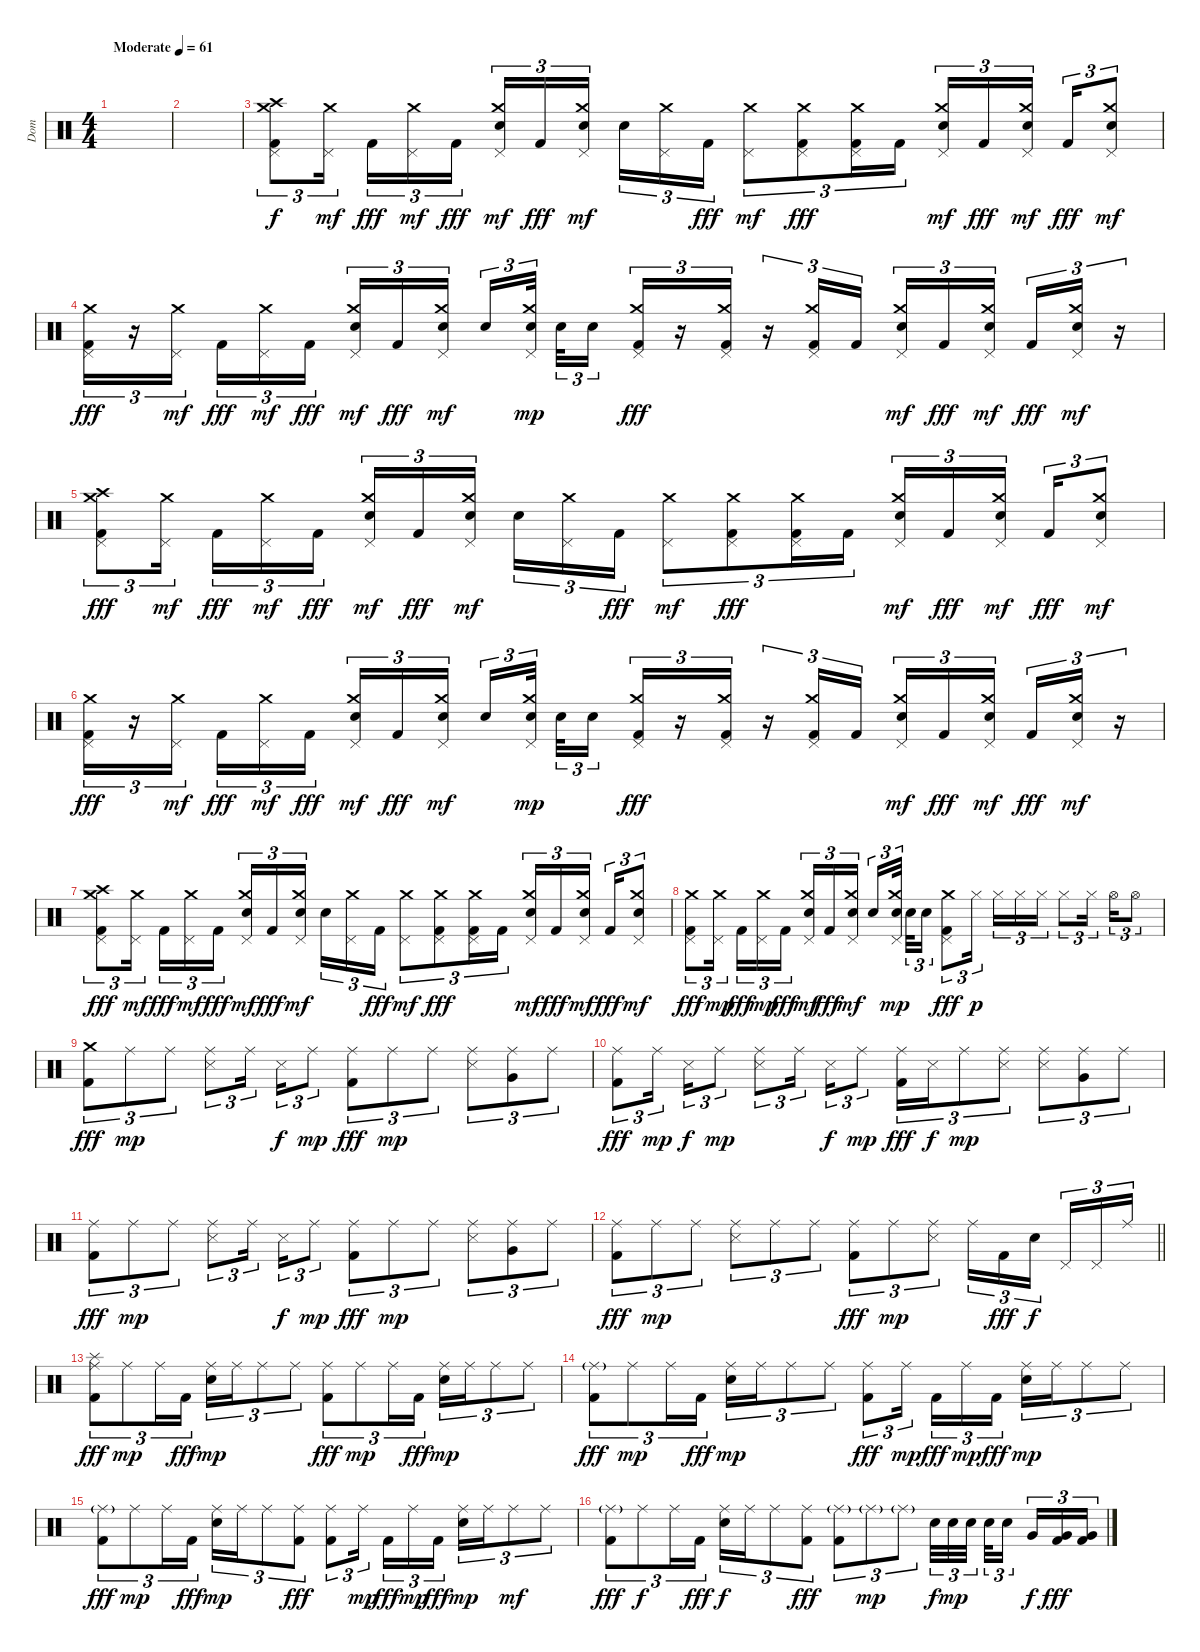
\track ("Dom" "Dom") {instrument percussion}
\staff {score}
\articulation defaults
\ts (4 4)
\tempo (61 "Moderate")
\clef neutral
\ks c
|
|
("Crash high (hit)" "Pedal Hi-Hat (hit)" "Crash medium (hit)" "Kick (hit) 2").8{tu (3 2)} ("Pedal Hi-Hat (hit)" "Crash medium (hit)").16{tu (3 2) dy mf beam splitsecondary} "Kick (hit) 2".16{tu (3 2) dy fff} ("Pedal Hi-Hat (hit)" "Crash medium (hit)").16{tu (3 2) dy mf} "Kick (hit) 2".16{tu (3 2) dy fff} ("Pedal Hi-Hat (hit)" "Crash medium (hit)" "Electric Snare (hit)").16{tu (3 2) dy mf} "Kick (hit) 2".16{tu (3 2) dy fff} ("Pedal Hi-Hat (hit)" "Crash medium (hit)" "Electric Snare (hit)").16{tu (3 2) dy mf beam splitsecondary} "Electric Snare (hit)".16{tu (3 2)} ("Pedal Hi-Hat (hit)" "Crash medium (hit)").16{tu (3 2)} "Kick (hit) 2".16{tu (3 2) dy fff} ("Pedal Hi-Hat (hit)" "Crash medium (hit)").8{tu (3 2) dy mf} ("Pedal Hi-Hat (hit)" "Crash medium (hit)" "Kick (hit) 2").8{tu (3 2) dy fff} ("Pedal Hi-Hat (hit)" "Crash medium (hit)" "Kick (hit) 2").16{tu (3 2)} "Kick (hit) 2".16{tu (3 2)} ("Pedal Hi-Hat (hit)" "Crash medium (hit)" "Electric Snare (hit)").16{tu (3 2) dy mf} "Kick (hit) 2".16{tu (3 2) dy fff} ("Pedal Hi-Hat (hit)" "Crash medium (hit)" "Electric Snare (hit)").16{tu (3 2) dy mf beam splitsecondary} "Kick (hit) 2".16{tu (3 2) dy fff} ("Pedal Hi-Hat (hit)" "Crash medium (hit)" "Electric Snare (hit)").8{tu (3 2) dy mf} |
("Pedal Hi-Hat (hit)" "Crash medium (hit)" "Kick (hit) 2").16{tu (3 2) dy fff} r.16{tu (3 2)} ("Pedal Hi-Hat (hit)" "Crash medium (hit)").16{tu (3 2) dy mf beam splitsecondary} "Kick (hit) 2".16{tu (3 2) dy fff} ("Pedal Hi-Hat (hit)" "Crash medium (hit)").16{tu (3 2) dy mf} "Kick (hit) 2".16{tu (3 2) dy fff} ("Pedal Hi-Hat (hit)" "Crash medium (hit)" "Electric Snare (hit)").16{tu (3 2) dy mf} "Kick (hit) 2".16{tu (3 2) dy fff} ("Pedal Hi-Hat (hit)" "Crash medium (hit)" "Electric Snare (hit)").16{tu (3 2) dy mf beam splitsecondary} "Electric Snare (hit)".16{tu (3 2)} ("Pedal Hi-Hat (hit)" "Crash medium (hit)" "Electric Snare (hit)").32{tu (3 2) dy mp beam splitsecondary} "Electric Snare (hit)".32{tu (3 2)} "Electric Snare (hit)".16{tu (3 2)} ("Pedal Hi-Hat (hit)" "Crash medium (hit)" "Kick (hit) 2").16{tu (3 2) dy fff} r.16{tu (3 2)} ("Pedal Hi-Hat (hit)" "Crash medium (hit)" "Kick (hit) 2").16{tu (3 2)} r.16{tu (3 2)} ("Pedal Hi-Hat (hit)" "Crash medium (hit)" "Kick (hit) 2").16{tu (3 2)} "Kick (hit) 2".16{tu (3 2)} ("Pedal Hi-Hat (hit)" "Crash medium (hit)" "Electric Snare (hit)").16{tu (3 2) dy mf} "Kick (hit) 2".16{tu (3 2) dy fff} ("Pedal Hi-Hat (hit)" "Crash medium (hit)" "Electric Snare (hit)").16{tu (3 2) dy mf beam splitsecondary} "Kick (hit) 2".16{tu (3 2) dy fff} ("Pedal Hi-Hat (hit)" "Crash medium (hit)" "Electric Snare (hit)").16{tu (3 2) dy mf} r.16{tu (3 2)} |
("Crash high (hit)" "Pedal Hi-Hat (hit)" "Crash medium (hit)" "Kick (hit) 2").8{tu (3 2) dy fff} ("Pedal Hi-Hat (hit)" "Crash medium (hit)").16{tu (3 2) dy mf beam splitsecondary} "Kick (hit) 2".16{tu (3 2) dy fff} ("Pedal Hi-Hat (hit)" "Crash medium (hit)").16{tu (3 2) dy mf} "Kick (hit) 2".16{tu (3 2) dy fff} ("Pedal Hi-Hat (hit)" "Crash medium (hit)" "Electric Snare (hit)").16{tu (3 2) dy mf} "Kick (hit) 2".16{tu (3 2) dy fff} ("Pedal Hi-Hat (hit)" "Crash medium (hit)" "Electric Snare (hit)").16{tu (3 2) dy mf beam splitsecondary} "Electric Snare (hit)".16{tu (3 2)} ("Pedal Hi-Hat (hit)" "Crash medium (hit)").16{tu (3 2)} "Kick (hit) 2".16{tu (3 2) dy fff} ("Pedal Hi-Hat (hit)" "Crash medium (hit)").8{tu (3 2) dy mf} ("Pedal Hi-Hat (hit)" "Crash medium (hit)" "Kick (hit) 2").8{tu (3 2) dy fff} ("Pedal Hi-Hat (hit)" "Crash medium (hit)" "Kick (hit) 2").16{tu (3 2)} "Kick (hit) 2".16{tu (3 2)} ("Pedal Hi-Hat (hit)" "Crash medium (hit)" "Electric Snare (hit)").16{tu (3 2) dy mf} "Kick (hit) 2".16{tu (3 2) dy fff} ("Pedal Hi-Hat (hit)" "Crash medium (hit)" "Electric Snare (hit)").16{tu (3 2) dy mf beam splitsecondary} "Kick (hit) 2".16{tu (3 2) dy fff} ("Pedal Hi-Hat (hit)" "Crash medium (hit)" "Electric Snare (hit)").8{tu (3 2) dy mf} |
("Pedal Hi-Hat (hit)" "Crash medium (hit)" "Kick (hit) 2").16{tu (3 2) dy fff} r.16{tu (3 2)} ("Pedal Hi-Hat (hit)" "Crash medium (hit)").16{tu (3 2) dy mf beam splitsecondary} "Kick (hit) 2".16{tu (3 2) dy fff} ("Pedal Hi-Hat (hit)" "Crash medium (hit)").16{tu (3 2) dy mf} "Kick (hit) 2".16{tu (3 2) dy fff} ("Pedal Hi-Hat (hit)" "Crash medium (hit)" "Electric Snare (hit)").16{tu (3 2) dy mf} "Kick (hit) 2".16{tu (3 2) dy fff} ("Pedal Hi-Hat (hit)" "Crash medium (hit)" "Electric Snare (hit)").16{tu (3 2) dy mf beam splitsecondary} "Electric Snare (hit)".16{tu (3 2)} ("Pedal Hi-Hat (hit)" "Crash medium (hit)" "Electric Snare (hit)").32{tu (3 2) dy mp beam splitsecondary} "Electric Snare (hit)".32{tu (3 2)} "Electric Snare (hit)".16{tu (3 2)} ("Pedal Hi-Hat (hit)" "Crash medium (hit)" "Kick (hit) 2").16{tu (3 2) dy fff} r.16{tu (3 2)} ("Pedal Hi-Hat (hit)" "Crash medium (hit)" "Kick (hit) 2").16{tu (3 2)} r.16{tu (3 2)} ("Pedal Hi-Hat (hit)" "Crash medium (hit)" "Kick (hit) 2").16{tu (3 2)} "Kick (hit) 2".16{tu (3 2)} ("Pedal Hi-Hat (hit)" "Crash medium (hit)" "Electric Snare (hit)").16{tu (3 2) dy mf} "Kick (hit) 2".16{tu (3 2) dy fff} ("Pedal Hi-Hat (hit)" "Crash medium (hit)" "Electric Snare (hit)").16{tu (3 2) dy mf beam splitsecondary} "Kick (hit) 2".16{tu (3 2) dy fff} ("Pedal Hi-Hat (hit)" "Crash medium (hit)" "Electric Snare (hit)").16{tu (3 2) dy mf} r.16{tu (3 2)} |
("Crash high (hit)" "Pedal Hi-Hat (hit)" "Crash medium (hit)" "Kick (hit) 2").8{tu (3 2) dy fff} ("Pedal Hi-Hat (hit)" "Crash medium (hit)").16{tu (3 2) dy mf beam splitsecondary} "Kick (hit) 2".16{tu (3 2) dy fff} ("Pedal Hi-Hat (hit)" "Crash medium (hit)").16{tu (3 2) dy mf} "Kick (hit) 2".16{tu (3 2) dy fff} ("Pedal Hi-Hat (hit)" "Crash medium (hit)" "Electric Snare (hit)").16{tu (3 2) dy mf} "Kick (hit) 2".16{tu (3 2) dy fff} ("Pedal Hi-Hat (hit)" "Crash medium (hit)" "Electric Snare (hit)").16{tu (3 2) dy mf beam splitsecondary} "Electric Snare (hit)".16{tu (3 2)} ("Pedal Hi-Hat (hit)" "Crash medium (hit)").16{tu (3 2)} "Kick (hit) 2".16{tu (3 2) dy fff} ("Pedal Hi-Hat (hit)" "Crash medium (hit)").8{tu (3 2) dy mf} ("Pedal Hi-Hat (hit)" "Crash medium (hit)" "Kick (hit) 2").8{tu (3 2) dy fff} ("Pedal Hi-Hat (hit)" "Crash medium (hit)" "Kick (hit) 2").16{tu (3 2)} "Kick (hit) 2".16{tu (3 2)} ("Pedal Hi-Hat (hit)" "Crash medium (hit)" "Electric Snare (hit)").16{tu (3 2) dy mf} "Kick (hit) 2".16{tu (3 2) dy fff} ("Pedal Hi-Hat (hit)" "Crash medium (hit)" "Electric Snare (hit)").16{tu (3 2) dy mf beam splitsecondary} "Kick (hit) 2".16{tu (3 2) dy fff} ("Pedal Hi-Hat (hit)" "Crash medium (hit)" "Electric Snare (hit)").8{tu (3 2) dy mf} |
("Pedal Hi-Hat (hit)" "Crash medium (hit)" "Kick (hit) 2").8{tu (3 2) dy fff} ("Pedal Hi-Hat (hit)" "Crash medium (hit)").16{tu (3 2) dy mp beam splitsecondary} "Kick (hit) 2".16{tu (3 2) dy fff} ("Pedal Hi-Hat (hit)" "Crash medium (hit)").16{tu (3 2) dy mp} "Kick (hit) 2".16{tu (3 2) dy fff} ("Pedal Hi-Hat (hit)" "Crash medium (hit)" "Electric Snare (hit)").16{tu (3 2) dy mf} "Kick (hit) 2".16{tu (3 2) dy fff} ("Pedal Hi-Hat (hit)" "Crash medium (hit)" "Electric Snare (hit)").16{tu (3 2) dy mf beam splitsecondary} "Electric Snare (hit)".16{tu (3 2)} ("Pedal Hi-Hat (hit)" "Crash medium (hit)" "Electric Snare (hit)").32{tu (3 2) dy mp beam splitsecondary} "Electric Snare (hit)".32{tu (3 2)} "Electric Snare (hit)".16{tu (3 2)} ("Pedal Hi-Hat (hit)" "Crash medium (hit)" "Kick (hit) 2").8{tu (3 2) dy fff} "Hi-Hat (closed)".16{tu (3 2) dy p beam splitsecondary} "Hi-Hat (closed)".16{tu (3 2)} "Hi-Hat (closed)".16{tu (3 2)} "Hi-Hat (closed)".16{tu (3 2)} "Hi-Hat (closed)".8{tu (3 2)} "Hi-Hat (closed)".16{tu (3 2) beam splitsecondary} "Hi-Hat (open)".16{tu (3 2)} "Hi-Hat (open)".8{tu (3 2)} |
("Crash medium (hit)" "Kick (hit) 2").8{tu (3 2) dy fff} "Ride (middle)".8{tu (3 2) dy mp} "Ride (middle)".8{tu (3 2)} ("Ride (middle)" "Snare (side stick) 3").8{tu (3 2)} "Ride (middle)".16{tu (3 2) beam splitsecondary} "Snare (side stick) 3".16{tu (3 2) dy f} "Ride (middle)".8{tu (3 2) dy mp} ("Ride (middle)" "Kick (hit) 2").8{tu (3 2) dy fff} "Ride (middle)".8{tu (3 2) dy mp} "Ride (middle)".8{tu (3 2)} ("Ride (middle)" "Snare (side stick) 3").8{tu (3 2)} ("Ride (middle)" "Very Low Tom (hit)").8{tu (3 2)} "Ride (middle)".8{tu (3 2)} |
("Ride (middle)" "Kick (hit) 2").8{tu (3 2) dy fff} "Ride (middle)".16{tu (3 2) dy mp beam splitsecondary} "Snare (side stick) 3".16{tu (3 2) dy f} "Ride (middle)".8{tu (3 2) dy mp} ("Ride (middle)" "Snare (side stick) 3").8{tu (3 2)} "Ride (middle)".16{tu (3 2) beam splitsecondary} "Snare (side stick) 3".16{tu (3 2) dy f} "Ride (middle)".8{tu (3 2) dy mp} ("Ride (middle)" "Kick (hit) 2").16{tu (3 2) dy fff} "Snare (side stick) 3".16{tu (3 2) dy f} "Ride (middle)".8{tu (3 2) dy mp} ("Ride (middle)" "Snare (side stick) 3").8{tu (3 2)} ("Ride (middle)" "Snare (side stick) 3").8{tu (3 2)} ("Ride (middle)" "Very Low Tom (hit)").8{tu (3 2)} "Ride (middle)".8{tu (3 2)} |
("Ride (middle)" "Kick (hit) 2").8{tu (3 2) dy fff} "Ride (middle)".8{tu (3 2) dy mp} "Ride (middle)".8{tu (3 2)} ("Ride (middle)" "Snare (side stick) 3").8{tu (3 2)} "Ride (middle)".16{tu (3 2) beam splitsecondary} "Snare (side stick) 3".16{tu (3 2) dy f} "Ride (middle)".8{tu (3 2) dy mp} ("Ride (middle)" "Kick (hit) 2").8{tu (3 2) dy fff} "Ride (middle)".8{tu (3 2) dy mp} "Ride (middle)".8{tu (3 2)} ("Ride (middle)" "Snare (side stick) 3").8{tu (3 2)} ("Ride (middle)" "Very Low Tom (hit)").8{tu (3 2)} "Ride (middle)".8{tu (3 2)} |
\barLineRight lightlight
("Ride (middle)" "Kick (hit) 2").8{tu (3 2) dy fff} "Ride (middle)".8{tu (3 2) dy mp} "Ride (middle)".8{tu (3 2)} ("Ride (middle)" "Snare (side stick) 3").8{tu (3 2)} "Ride (middle)".8{tu (3 2)} "Ride (middle)".8{tu (3 2)} ("Ride (middle)" "Kick (hit) 2").8{tu (3 2) dy fff} "Ride (middle)".8{tu (3 2) dy mp} ("Ride (middle)" "Snare (side stick) 3").8{tu (3 2)} "Ride (middle)".16{tu (3 2)} "Kick (hit) 2".16{tu (3 2) dy fff} "Electric Snare (hit)".16{tu (3 2) dy f beam splitsecondary} "Pedal Hi-Hat (hit)".16{tu (3 2)} "Pedal Hi-Hat (hit)".16{tu (3 2)} "Ride (middle)".16{tu (3 2)} |
("Splash (hit)" "Ride (middle)" "Kick (hit) 2").8{tu (3 2) dy fff} "Ride (middle)".8{tu (3 2) dy mp} "Ride (middle)".16{tu (3 2)} "Kick (hit) 2".16{tu (3 2) dy fff} ("Ride (middle)" "Electric Snare (hit)").16{tu (3 2) dy mp} "Ride (middle)".16{tu (3 2)} "Ride (middle)".8{tu (3 2)} "Ride (middle)".8{tu (3 2)} ("Ride (middle)" "Kick (hit) 2").8{tu (3 2) dy fff} "Ride (middle)".8{tu (3 2) dy mp} "Ride (middle)".16{tu (3 2)} "Kick (hit) 2".16{tu (3 2) dy fff} ("Ride (middle)" "Electric Snare (hit)").16{tu (3 2) dy mp} "Ride (middle)".16{tu (3 2)} "Ride (middle)".8{tu (3 2)} "Ride (middle)".8{tu (3 2)} |
("Ride (middle)"{g} "Kick (hit) 2").8{tu (3 2) dy fff} "Ride (middle)".8{tu (3 2) dy mp} "Ride (middle)".16{tu (3 2)} "Kick (hit) 2".16{tu (3 2) dy fff} ("Ride (middle)" "Electric Snare (hit)").16{tu (3 2) dy mp} "Ride (middle)".16{tu (3 2)} "Ride (middle)".8{tu (3 2)} "Ride (middle)".8{tu (3 2)} ("Ride (middle)" "Kick (hit) 2").8{tu (3 2) dy fff} "Ride (middle)".16{tu (3 2) dy mp beam splitsecondary} "Kick (hit) 2".16{tu (3 2) dy fff} "Ride (middle)".16{tu (3 2) dy mp} "Kick (hit) 2".16{tu (3 2) dy fff} ("Ride (middle)" "Electric Snare (hit)").16{tu (3 2) dy mp} "Ride (middle)".16{tu (3 2)} "Ride (middle)".8{tu (3 2)} "Ride (middle)".8{tu (3 2)} |
("Ride (middle)"{g} "Kick (hit) 2").8{tu (3 2) dy fff} "Ride (middle)".8{tu (3 2) dy mp} "Ride (middle)".16{tu (3 2)} "Kick (hit) 2".16{tu (3 2) dy fff} ("Ride (middle)" "Electric Snare (hit)").16{tu (3 2) dy mp} "Ride (middle)".16{tu (3 2)} "Ride (middle)".8{tu (3 2)} ("Ride (middle)" "Kick (hit) 2").8{tu (3 2) dy fff} ("Ride (middle)" "Kick (hit) 2").8{tu (3 2)} "Ride (middle)".16{tu (3 2) dy mp beam splitsecondary} "Kick (hit) 2".16{tu (3 2) dy fff} "Ride (middle)".16{tu (3 2) dy mp} "Kick (hit) 2".16{tu (3 2) dy fff} ("Ride (middle)" "Electric Snare (hit)").16{tu (3 2) dy mp} "Ride (middle)".16{tu (3 2)} "Ride (middle)".8{tu (3 2) dy mf} "Ride (middle)".8{tu (3 2)} |
("Ride (middle)"{g} "Kick (hit) 2").8{tu (3 2) dy fff} "Ride (middle)".8{tu (3 2) dy f} "Ride (middle)".16{tu (3 2)} "Kick (hit) 2".16{tu (3 2) dy fff} ("Ride (middle)" "Electric Snare (hit)").16{tu (3 2) dy f} "Ride (middle)".16{tu (3 2)} "Ride (middle)".8{tu (3 2)} ("Ride (middle)" "Kick (hit) 2").8{tu (3 2) dy fff} ("Ride (middle)"{g} "Kick (hit) 2").8{tu (3 2)} "Ride (middle)"{g}.8{tu (3 2) dy mp} "Ride (middle)"{g}.8{tu (3 2)} "Electric Snare (hit)".32{tu (3 2) dy f} "Electric Snare (hit)".32{tu (3 2) dy mp} "Electric Snare (hit)".32{tu (3 2) beam splitsecondary} "Electric Snare (hit)".32{tu (3 2)} "Electric Snare (hit)".16{tu (3 2) beam splitsecondary} "Very Low Tom (hit)".16{tu (3 2) dy f} ("Very Low Tom (hit)" "Kick (hit) 2").16{tu (3 2) dy fff} ("Very Low Tom (hit)" "Kick (hit) 2").16{tu (3 2)}
